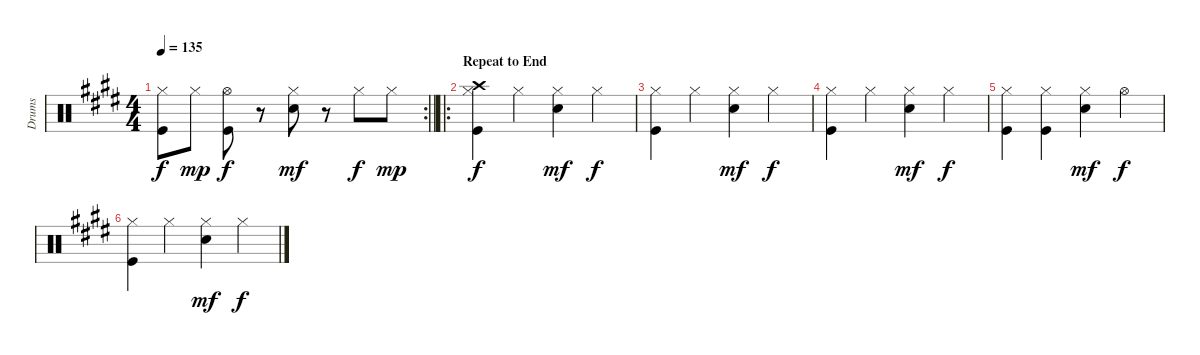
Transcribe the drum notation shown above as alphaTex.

\track ("Drums" "Drums") {instrument percussion}
\staff {score}
\articulation defaults
\rc 2
\ts (4 4)
\tempo 135
\clef neutral
\barLineRight lightlight
\ks e
("Hi-Hat (closed)" "Kick (hit)").8{dy f} "Hi-Hat (closed)".8{dy mp} ("Hi-Hat (open)" "Kick (hit)").8{dy f} r.8 ("Hi-Hat (closed)" "Electric Snare (hit)").8{dy mf} r.8 "Hi-Hat (closed)".8{dy f} "Hi-Hat (closed)".8{dy mp} |
\ro
\section ("" "Repeat to End")
("Hi-Hat (closed)" "Crash high (hit)" "Kick (hit)").4{dy f} "Hi-Hat (closed)".4 ("Hi-Hat (closed)" "Electric Snare (hit)").4{dy mf} "Hi-Hat (closed)".4{dy f} |
("Hi-Hat (closed)" "Kick (hit)").4 "Hi-Hat (closed)".4 ("Hi-Hat (closed)" "Electric Snare (hit)").4{dy mf} "Hi-Hat (closed)".4{dy f} |
("Hi-Hat (closed)" "Kick (hit)").4 "Hi-Hat (closed)".4 ("Hi-Hat (closed)" "Electric Snare (hit)").4{dy mf} "Hi-Hat (closed)".4{dy f} |
("Hi-Hat (closed)" "Kick (hit)").4 ("Hi-Hat (closed)" "Kick (hit)").4 ("Hi-Hat (closed)" "Electric Snare (hit)").4{dy mf} "Hi-Hat (open)".4{dy f} |
("Hi-Hat (closed)" "Kick (hit)").4 "Hi-Hat (closed)".4 ("Hi-Hat (closed)" "Electric Snare (hit)").4{dy mf} "Hi-Hat (closed)".4{dy f}
